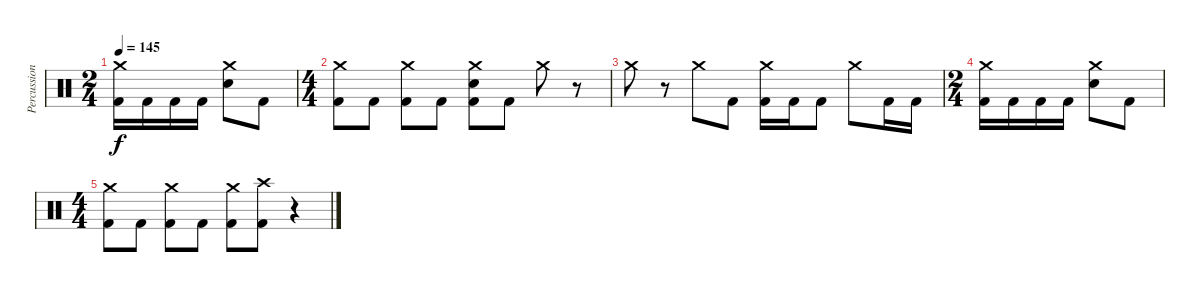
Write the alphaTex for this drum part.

\track ("Percussion" "Percussion") {instrument percussion}
\staff {score}
\articulation defaults
\ts (2 4)
\tempo 145
\clef neutral
\ks c
("Crash medium (hit)" "Kick (hit) 2").16{dy f} "Kick (hit) 2".16 "Kick (hit) 2".16 "Kick (hit) 2".16 ("Crash medium (hit)" "Snare (hit) 2").8 "Kick (hit) 2".8 |
\ts (4 4)
("Crash medium (hit)" "Kick (hit) 2").8 "Kick (hit) 2".8 ("Crash medium (hit)" "Kick (hit) 2").8 "Kick (hit) 2".8 ("Crash medium (hit)" "Snare (hit) 2" "Kick (hit) 2").8 "Kick (hit) 2".8 "Crash medium (hit)".8 r.8 |
"Crash medium (hit)".8 r.8 "Crash medium (hit)".8 "Kick (hit) 2".8 ("Crash medium (hit)" "Kick (hit) 2").16 "Kick (hit) 2".16 "Kick (hit) 2".8 "Crash medium (hit)".8 "Kick (hit) 2".16 "Kick (hit) 2".16 |
\ts (2 4)
("Crash medium (hit)" "Kick (hit) 2").16 "Kick (hit) 2".16 "Kick (hit) 2".16 "Kick (hit) 2".16 ("Crash medium (hit)" "Snare (hit) 2").8 "Kick (hit) 2".8 |
\ts (4 4)
("Crash medium (hit)" "Kick (hit) 2").8 "Kick (hit) 2".8 ("Crash medium (hit)" "Kick (hit) 2").8 "Kick (hit) 2".8 ("Crash medium (hit)" "Kick (hit) 2").8 ("Crash high (hit)" "Kick (hit) 2").8 r.4
